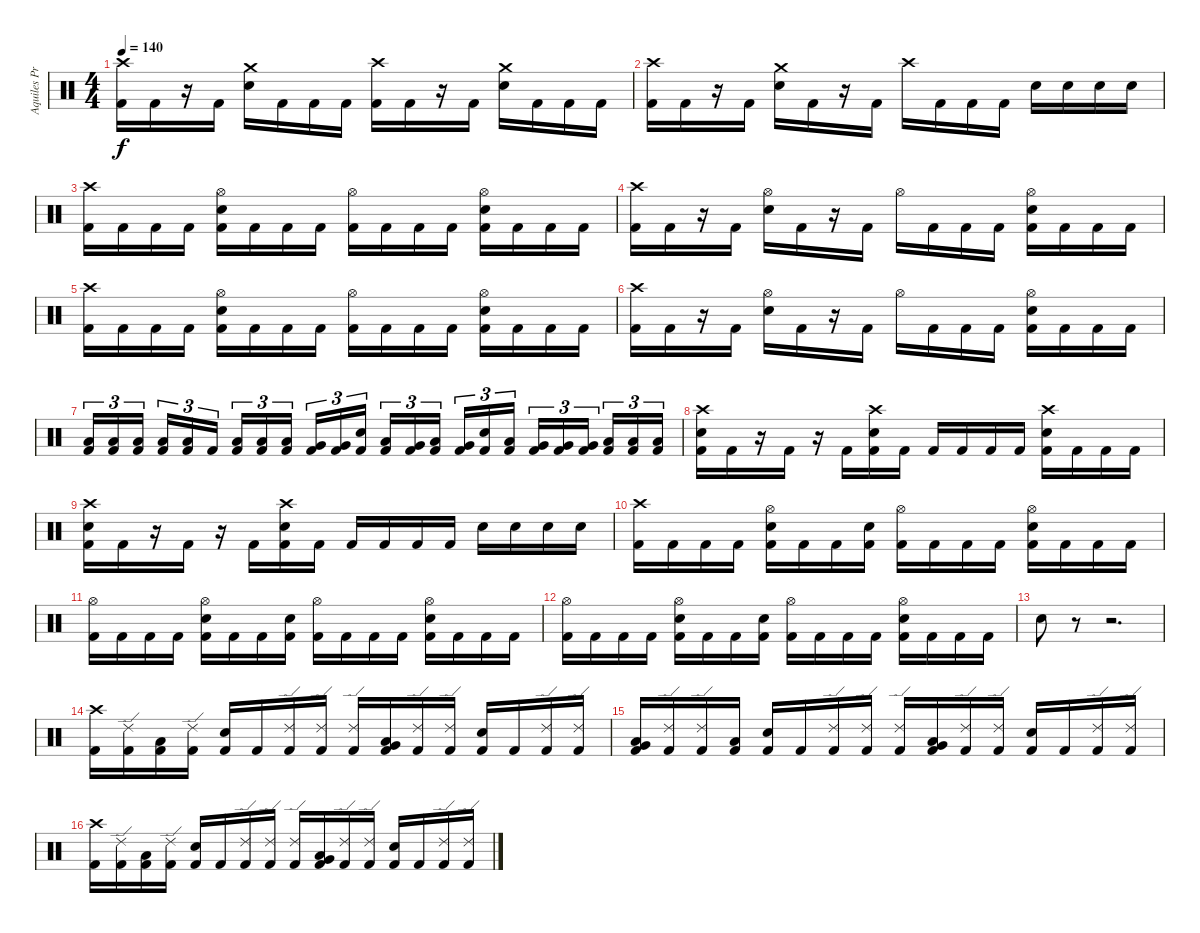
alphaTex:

\track ("Aquiles Priester" "Aquiles Pr") {instrument percussion}
\staff {score}
\articulation defaults
\ts (4 4)
\tempo 140
\clef neutral
\ks c
("Crash high (hit)" "Kick (hit) 2").16{dy f} "Kick (hit) 2".16 r.16 "Kick (hit) 2".16 ("Crash medium (hit)" "Electric Snare (hit)").16 "Kick (hit) 2".16 "Kick (hit) 2".16 "Kick (hit) 2".16 ("Crash high (hit)" "Kick (hit) 2").16 "Kick (hit) 2".16 r.16 "Kick (hit) 2".16 ("Crash medium (hit)" "Electric Snare (hit)").16 "Kick (hit) 2".16 "Kick (hit) 2".16 "Kick (hit) 2".16 |
("Crash high (hit)" "Kick (hit) 2").16 "Kick (hit) 2".16 r.16 "Kick (hit) 2".16 ("Crash medium (hit)" "Electric Snare (hit)").16 "Kick (hit) 2".16 r.16 "Kick (hit) 2".16 "Crash high (hit)".16 "Kick (hit) 2".16 "Kick (hit) 2".16 "Kick (hit) 2".16 "Electric Snare (hit)".16 "Electric Snare (hit)".16 "Electric Snare (hit)".16 "Electric Snare (hit)".16 |
("Crash high (hit)" "Kick (hit) 2").16 "Kick (hit) 2".16 "Kick (hit) 2".16 "Kick (hit) 2".16 ("Hi-Hat (open)" "Electric Snare (hit)" "Kick (hit) 2").16 "Kick (hit) 2".16 "Kick (hit) 2".16 "Kick (hit) 2".16 ("Hi-Hat (open)" "Kick (hit) 2").16 "Kick (hit) 2".16 "Kick (hit) 2".16 "Kick (hit) 2".16 ("Hi-Hat (open)" "Electric Snare (hit)" "Kick (hit) 2").16 "Kick (hit) 2".16 "Kick (hit) 2".16 "Kick (hit) 2".16 |
("Crash high (hit)" "Kick (hit) 2").16 "Kick (hit) 2".16 r.16 "Kick (hit) 2".16 ("Hi-Hat (open)" "Electric Snare (hit)").16 "Kick (hit) 2".16 r.16 "Kick (hit) 2".16 "Hi-Hat (open)".16 "Kick (hit) 2".16 "Kick (hit) 2".16 "Kick (hit) 2".16 ("Hi-Hat (open)" "Electric Snare (hit)" "Kick (hit) 2").16 "Kick (hit) 2".16 "Kick (hit) 2".16 "Kick (hit) 2".16 |
("Crash high (hit)" "Kick (hit) 2").16 "Kick (hit) 2".16 "Kick (hit) 2".16 "Kick (hit) 2".16 ("Hi-Hat (open)" "Electric Snare (hit)" "Kick (hit) 2").16 "Kick (hit) 2".16 "Kick (hit) 2".16 "Kick (hit) 2".16 ("Hi-Hat (open)" "Kick (hit) 2").16 "Kick (hit) 2".16 "Kick (hit) 2".16 "Kick (hit) 2".16 ("Hi-Hat (open)" "Electric Snare (hit)" "Kick (hit) 2").16 "Kick (hit) 2".16 "Kick (hit) 2".16 "Kick (hit) 2".16 |
("Crash high (hit)" "Kick (hit) 2").16 "Kick (hit) 2".16 r.16 "Kick (hit) 2".16 ("Hi-Hat (open)" "Electric Snare (hit)").16 "Kick (hit) 2".16 r.16 "Kick (hit) 2".16 "Hi-Hat (open)".16 "Kick (hit) 2".16 "Kick (hit) 2".16 "Kick (hit) 2".16 ("Hi-Hat (open)" "Electric Snare (hit)" "Kick (hit) 2").16 "Kick (hit) 2".16 "Kick (hit) 2".16 "Kick (hit) 2".16 |
("Low Floor Tom (hit)" "Kick (hit) 2").16{tu (3 2)} ("Low Floor Tom (hit)" "Kick (hit) 2").16{tu (3 2)} ("Low Tom (hit)" "Kick (hit) 2").16{tu (3 2)} ("Low Tom (hit)" "Kick (hit) 2").16{tu (3 2)} ("Low Tom (hit)" "Kick (hit) 2").16{tu (3 2)} "Kick (hit) 2".16{tu (3 2)} ("Low Floor Tom (hit)" "Kick (hit) 2").16{tu (3 2)} ("Low Floor Tom (hit)" "Kick (hit) 2").16{tu (3 2)} ("Low Floor Tom (hit)" "Kick (hit) 2").16{tu (3 2)} ("Very Low Tom (hit)" "Kick (hit) 2").16{tu (3 2)} ("Very Low Tom (hit)" "Kick (hit) 2").16{tu (3 2)} ("Electric Snare (hit)" "Kick (hit) 2").16{tu (3 2)} ("Low Tom (hit)" "Kick (hit) 2").16{tu (3 2)} ("Very Low Tom (hit)" "Kick (hit) 2").16{tu (3 2)} ("Low Floor Tom (hit)" "Kick (hit) 2").16{tu (3 2)} ("Very Low Tom (hit)" "Kick (hit) 2").16{tu (3 2)} ("Electric Snare (hit)" "Kick (hit) 2").16{tu (3 2)} ("Low Tom (hit)" "Kick (hit) 2").16{tu (3 2)} ("Very Low Tom (hit)" "Kick (hit) 2").16{tu (3 2)} ("Very Low Tom (hit)" "Kick (hit) 2").16{tu (3 2)} ("Very Low Tom (hit)" "Kick (hit) 2").16{tu (3 2)} ("Low Floor Tom (hit)" "Kick (hit) 2").16{tu (3 2)} ("Low Floor Tom (hit)" "Kick (hit) 2").16{tu (3 2)} ("Low Floor Tom (hit)" "Kick (hit) 2").16{tu (3 2)} |
("Crash high (hit)" "Electric Snare (hit)" "Kick (hit) 2").16 "Kick (hit) 2".16 r.16 "Kick (hit) 2".16 r.16 "Kick (hit) 2".16 ("Crash high (hit)" "Electric Snare (hit)" "Kick (hit) 2").16 "Kick (hit) 2".16 "Kick (hit) 2".16 "Kick (hit) 2".16 "Kick (hit) 2".16 "Kick (hit) 2".16 ("Crash high (hit)" "Electric Snare (hit)" "Kick (hit) 2").16 "Kick (hit) 2".16 "Kick (hit) 2".16 "Kick (hit) 2".16 |
("Crash high (hit)" "Electric Snare (hit)" "Kick (hit) 2").16 "Kick (hit) 2".16 r.16 "Kick (hit) 2".16 r.16 "Kick (hit) 2".16 ("Crash high (hit)" "Electric Snare (hit)" "Kick (hit) 2").16 "Kick (hit) 2".16 "Kick (hit) 2".16 "Kick (hit) 2".16 "Kick (hit) 2".16 "Kick (hit) 2".16 "Electric Snare (hit)".16 "Electric Snare (hit)".16 "Electric Snare (hit)".16 "Electric Snare (hit)".16 |
("Crash high (hit)" "Kick (hit) 2").16 "Kick (hit) 2".16 "Kick (hit) 2".16 "Kick (hit) 2".16 ("Hi-Hat (open)" "Electric Snare (hit)" "Kick (hit) 2").16 "Kick (hit) 2".16 "Kick (hit) 2".16 ("Electric Snare (hit)" "Kick (hit) 2").16 ("Hi-Hat (open)" "Kick (hit) 2").16 "Kick (hit) 2".16 "Kick (hit) 2".16 "Kick (hit) 2".16 ("Hi-Hat (open)" "Electric Snare (hit)" "Kick (hit) 2").16 "Kick (hit) 2".16 "Kick (hit) 2".16 "Kick (hit) 2".16 |
("Hi-Hat (open)" "Kick (hit) 2").16 "Kick (hit) 2".16 "Kick (hit) 2".16 "Kick (hit) 2".16 ("Hi-Hat (open)" "Electric Snare (hit)" "Kick (hit) 2").16 "Kick (hit) 2".16 "Kick (hit) 2".16 ("Electric Snare (hit)" "Kick (hit) 2").16 ("Hi-Hat (open)" "Kick (hit) 2").16 "Kick (hit) 2".16 "Kick (hit) 2".16 "Kick (hit) 2".16 ("Hi-Hat (open)" "Electric Snare (hit)" "Kick (hit) 2").16 "Kick (hit) 2".16 "Kick (hit) 2".16 "Kick (hit) 2".16 |
("Hi-Hat (open)" "Kick (hit) 2").16 "Kick (hit) 2".16 "Kick (hit) 2".16 "Kick (hit) 2".16 ("Hi-Hat (open)" "Electric Snare (hit)" "Kick (hit) 2").16 "Kick (hit) 2".16 "Kick (hit) 2".16 ("Electric Snare (hit)" "Kick (hit) 2").16 ("Hi-Hat (open)" "Kick (hit) 2").16 "Kick (hit) 2".16 "Kick (hit) 2".16 "Kick (hit) 2".16 ("Hi-Hat (open)" "Electric Snare (hit)" "Kick (hit) 2").16 "Kick (hit) 2".16 "Kick (hit) 2".16 "Kick (hit) 2".16 |
"Electric Snare (hit)".8 r.8 r.2{d} |
("Crash high (hit)" "Kick (hit) 2").16 ("Ride (edge) 2" "Kick (hit) 2").16 ("Low Floor Tom (hit)" "Kick (hit) 2").16 ("Ride (edge) 2" "Kick (hit) 2").16 ("Electric Snare (hit)" "Kick (hit) 2").16 "Kick (hit) 2".16 ("Ride (edge) 2" "Kick (hit) 2").16 ("Ride (edge) 2" "Kick (hit) 2").16 ("Ride (edge) 2" "Kick (hit) 2").16 ("Low Floor Tom (hit)" "Very Low Tom (hit)" "Kick (hit) 2").16 ("Ride (edge) 2" "Kick (hit) 2").16 ("Ride (edge) 2" "Kick (hit) 2").16 ("Electric Snare (hit)" "Kick (hit) 2").16 "Kick (hit) 2".16 ("Ride (edge) 2" "Kick (hit) 2").16 ("Ride (edge) 2" "Kick (hit) 2").16 |
("Low Floor Tom (hit)" "Very Low Tom (hit)" "Kick (hit) 2").16 ("Ride (edge) 2" "Kick (hit) 2").16 ("Ride (edge) 2" "Kick (hit) 2").16 ("Low Floor Tom (hit)" "Kick (hit) 2").16 ("Electric Snare (hit)" "Kick (hit) 2").16 "Kick (hit) 2".16 ("Ride (edge) 2" "Kick (hit) 2").16 ("Ride (edge) 2" "Kick (hit) 2").16 ("Ride (edge) 2" "Kick (hit) 2").16 ("Very Low Tom (hit)" "Low Floor Tom (hit)" "Kick (hit) 2").16 ("Ride (edge) 2" "Kick (hit) 2").16 ("Ride (edge) 2" "Kick (hit) 2").16 ("Electric Snare (hit)" "Kick (hit) 2").16 "Kick (hit) 2".16 ("Ride (edge) 2" "Kick (hit) 2").16 ("Ride (edge) 2" "Kick (hit) 2").16 |
("Crash high (hit)" "Kick (hit) 2").16 ("Ride (edge) 2" "Kick (hit) 2").16 ("Low Floor Tom (hit)" "Kick (hit) 2").16 ("Ride (edge) 2" "Kick (hit) 2").16 ("Electric Snare (hit)" "Kick (hit) 2").16 "Kick (hit) 2".16 ("Ride (edge) 2" "Kick (hit) 2").16 ("Ride (edge) 2" "Kick (hit) 2").16 ("Ride (edge) 2" "Kick (hit) 2").16 ("Low Floor Tom (hit)" "Very Low Tom (hit)" "Kick (hit) 2").16 ("Ride (edge) 2" "Kick (hit) 2").16 ("Ride (edge) 2" "Kick (hit) 2").16 ("Electric Snare (hit)" "Kick (hit) 2").16 "Kick (hit) 2".16 ("Ride (edge) 2" "Kick (hit) 2").16 ("Ride (edge) 2" "Kick (hit) 2").16
